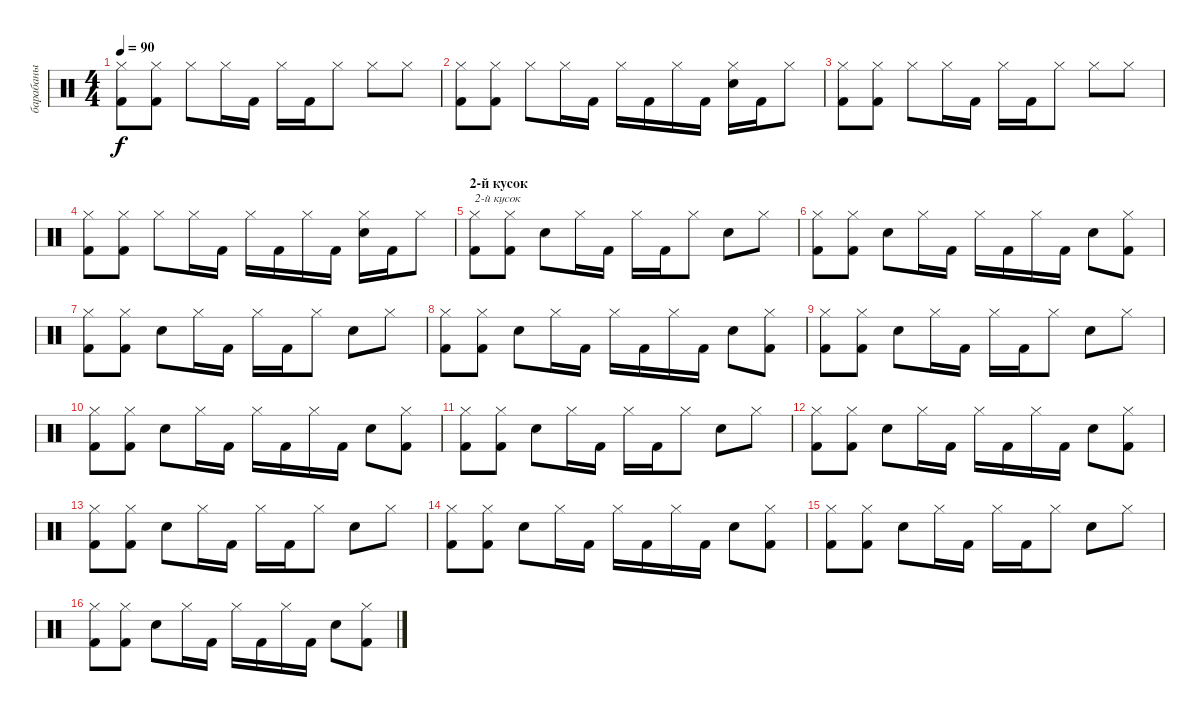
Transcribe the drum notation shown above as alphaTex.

\track ("барабаны" "барабаны") {instrument percussion}
\staff {score}
\articulation defaults
\ts (4 4)
\tempo 90
\clef neutral
\ks c
("Hi-Hat (closed)" "Kick (hit) 2").8{dy f} ("Hi-Hat (closed)" "Kick (hit) 2").8 "Hi-Hat (closed)".8 "Hi-Hat (closed)".16 "Kick (hit) 2".16 "Hi-Hat (closed)".16 "Kick (hit) 2".16 "Hi-Hat (closed)".8 "Hi-Hat (closed)".8 "Hi-Hat (closed)".8 |
("Hi-Hat (closed)" "Kick (hit) 2").8 ("Hi-Hat (closed)" "Kick (hit) 2").8 "Hi-Hat (closed)".8 "Hi-Hat (closed)".16 "Kick (hit) 2".16 "Hi-Hat (closed)".16 "Kick (hit) 2".16 "Hi-Hat (closed)".16 "Kick (hit) 2".16 ("Hi-Hat (closed)" "Electric Snare (hit)").16 "Kick (hit) 2".16 "Hi-Hat (closed)".8 |
("Hi-Hat (closed)" "Kick (hit) 2").8 ("Hi-Hat (closed)" "Kick (hit) 2").8 "Hi-Hat (closed)".8 "Hi-Hat (closed)".16 "Kick (hit) 2".16 "Hi-Hat (closed)".16 "Kick (hit) 2".16 "Hi-Hat (closed)".8 "Hi-Hat (closed)".8 "Hi-Hat (closed)".8 |
("Hi-Hat (closed)" "Kick (hit) 2").8 ("Hi-Hat (closed)" "Kick (hit) 2").8 "Hi-Hat (closed)".8 "Hi-Hat (closed)".16 "Kick (hit) 2".16 "Hi-Hat (closed)".16 "Kick (hit) 2".16 "Hi-Hat (closed)".16 "Kick (hit) 2".16 ("Hi-Hat (closed)" "Electric Snare (hit)").16 "Kick (hit) 2".16 "Hi-Hat (closed)".8 |
\section ("" "2-й кусок")
("Hi-Hat (closed)" "Kick (hit) 2").8{txt "2-й кусок"} ("Hi-Hat (closed)" "Kick (hit) 2").8 "Electric Snare (hit)".8 "Hi-Hat (closed)".16 "Kick (hit) 2".16 "Hi-Hat (closed)".16 "Kick (hit) 2".16 "Hi-Hat (closed)".8 "Electric Snare (hit)".8 "Hi-Hat (closed)".8 |
("Hi-Hat (closed)" "Kick (hit) 2").8 ("Hi-Hat (closed)" "Kick (hit) 2").8 "Electric Snare (hit)".8 "Hi-Hat (closed)".16 "Kick (hit) 2".16 "Hi-Hat (closed)".16 "Kick (hit) 2".16 "Hi-Hat (closed)".16 "Kick (hit) 2".16 "Electric Snare (hit)".8 ("Hi-Hat (closed)" "Kick (hit) 2").8 |
("Hi-Hat (closed)" "Kick (hit) 2").8 ("Hi-Hat (closed)" "Kick (hit) 2").8 "Electric Snare (hit)".8 "Hi-Hat (closed)".16 "Kick (hit) 2".16 "Hi-Hat (closed)".16 "Kick (hit) 2".16 "Hi-Hat (closed)".8 "Electric Snare (hit)".8 "Hi-Hat (closed)".8 |
("Hi-Hat (closed)" "Kick (hit) 2").8 ("Hi-Hat (closed)" "Kick (hit) 2").8 "Electric Snare (hit)".8 "Hi-Hat (closed)".16 "Kick (hit) 2".16 "Hi-Hat (closed)".16 "Kick (hit) 2".16 "Hi-Hat (closed)".16 "Kick (hit) 2".16 "Electric Snare (hit)".8 ("Hi-Hat (closed)" "Kick (hit) 2").8 |
("Hi-Hat (closed)" "Kick (hit) 2").8 ("Hi-Hat (closed)" "Kick (hit) 2").8 "Electric Snare (hit)".8 "Hi-Hat (closed)".16 "Kick (hit) 2".16 "Hi-Hat (closed)".16 "Kick (hit) 2".16 "Hi-Hat (closed)".8 "Electric Snare (hit)".8 "Hi-Hat (closed)".8 |
("Hi-Hat (closed)" "Kick (hit) 2").8 ("Hi-Hat (closed)" "Kick (hit) 2").8 "Electric Snare (hit)".8 "Hi-Hat (closed)".16 "Kick (hit) 2".16 "Hi-Hat (closed)".16 "Kick (hit) 2".16 "Hi-Hat (closed)".16 "Kick (hit) 2".16 "Electric Snare (hit)".8 ("Hi-Hat (closed)" "Kick (hit) 2").8 |
("Hi-Hat (closed)" "Kick (hit) 2").8 ("Hi-Hat (closed)" "Kick (hit) 2").8 "Electric Snare (hit)".8 "Hi-Hat (closed)".16 "Kick (hit) 2".16 "Hi-Hat (closed)".16 "Kick (hit) 2".16 "Hi-Hat (closed)".8 "Electric Snare (hit)".8 "Hi-Hat (closed)".8 |
("Hi-Hat (closed)" "Kick (hit) 2").8 ("Hi-Hat (closed)" "Kick (hit) 2").8 "Electric Snare (hit)".8 "Hi-Hat (closed)".16 "Kick (hit) 2".16 "Hi-Hat (closed)".16 "Kick (hit) 2".16 "Hi-Hat (closed)".16 "Kick (hit) 2".16 "Electric Snare (hit)".8 ("Hi-Hat (closed)" "Kick (hit) 2").8 |
("Hi-Hat (closed)" "Kick (hit) 2").8 ("Hi-Hat (closed)" "Kick (hit) 2").8 "Electric Snare (hit)".8 "Hi-Hat (closed)".16 "Kick (hit) 2".16 "Hi-Hat (closed)".16 "Kick (hit) 2".16 "Hi-Hat (closed)".8 "Electric Snare (hit)".8 "Hi-Hat (closed)".8 |
("Hi-Hat (closed)" "Kick (hit) 2").8 ("Hi-Hat (closed)" "Kick (hit) 2").8 "Electric Snare (hit)".8 "Hi-Hat (closed)".16 "Kick (hit) 2".16 "Hi-Hat (closed)".16 "Kick (hit) 2".16 "Hi-Hat (closed)".16 "Kick (hit) 2".16 "Electric Snare (hit)".8 ("Hi-Hat (closed)" "Kick (hit) 2").8 |
("Hi-Hat (closed)" "Kick (hit) 2").8 ("Hi-Hat (closed)" "Kick (hit) 2").8 "Electric Snare (hit)".8 "Hi-Hat (closed)".16 "Kick (hit) 2".16 "Hi-Hat (closed)".16 "Kick (hit) 2".16 "Hi-Hat (closed)".8 "Electric Snare (hit)".8 "Hi-Hat (closed)".8 |
("Hi-Hat (closed)" "Kick (hit) 2").8 ("Hi-Hat (closed)" "Kick (hit) 2").8 "Electric Snare (hit)".8 "Hi-Hat (closed)".16 "Kick (hit) 2".16 "Hi-Hat (closed)".16 "Kick (hit) 2".16 "Hi-Hat (closed)".16 "Kick (hit) 2".16 "Electric Snare (hit)".8 ("Hi-Hat (closed)" "Kick (hit) 2").8
